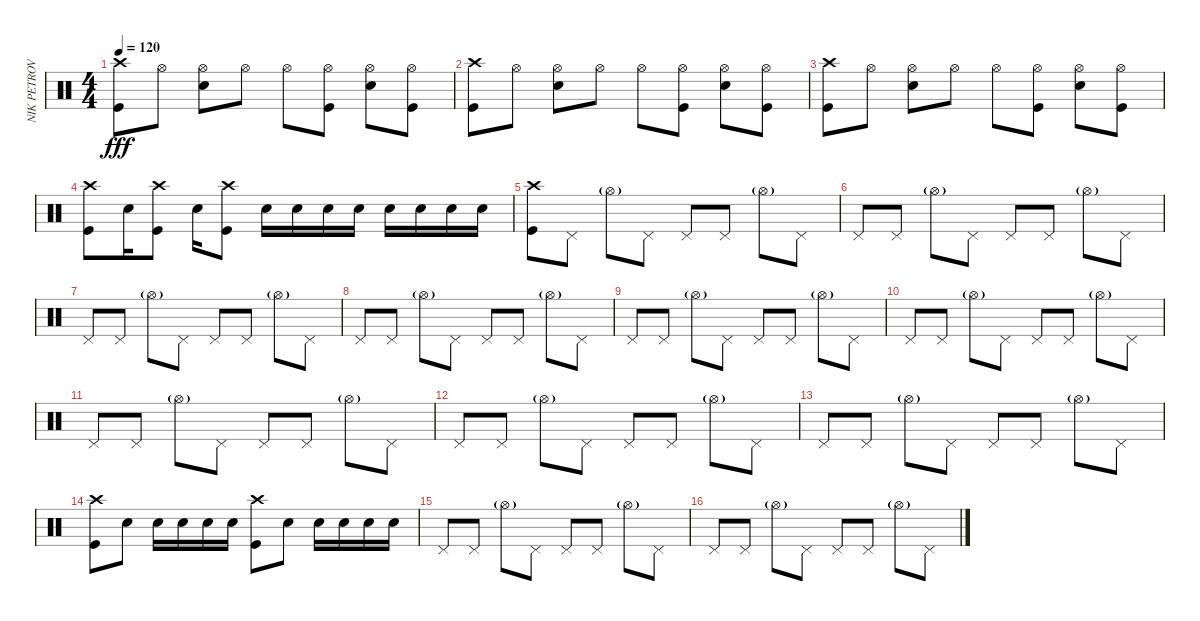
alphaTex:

\track ("NIK PETROV" "NIK PETROV") {instrument percussion}
\staff {score}
\articulation defaults
\ts (4 4)
\tempo 120
\clef neutral
\ks c
("Crash high (hit)" "Kick (hit)").8{dy fff} "Hi-Hat (open)".8 ("Hi-Hat (open)" "Snare (hit) 2").8 "Hi-Hat (open)".8 "Hi-Hat (open)".8 ("Hi-Hat (open)" "Kick (hit)").8 ("Hi-Hat (open)" "Snare (hit) 2").8 ("Hi-Hat (open)" "Kick (hit)").8 |
("Crash high (hit)" "Kick (hit)").8 "Hi-Hat (open)".8 ("Hi-Hat (open)" "Snare (hit) 2").8 "Hi-Hat (open)".8 "Hi-Hat (open)".8 ("Hi-Hat (open)" "Kick (hit)").8 ("Hi-Hat (open)" "Snare (hit) 2").8 ("Hi-Hat (open)" "Kick (hit)").8 |
("Crash high (hit)" "Kick (hit)").8 "Hi-Hat (open)".8 ("Hi-Hat (open)" "Snare (hit) 2").8 "Hi-Hat (open)".8 "Hi-Hat (open)".8 ("Hi-Hat (open)" "Kick (hit)").8 ("Hi-Hat (open)" "Snare (hit) 2").8 ("Hi-Hat (open)" "Kick (hit)").8 |
("Crash high (hit)" "Kick (hit)").8 "Snare (hit) 2".16 ("Crash high (hit)" "Kick (hit)").8 "Snare (hit) 2".16 ("Crash high (hit)" "Kick (hit)").8 "Snare (hit) 2".16 "Snare (hit) 2".16 "Snare (hit) 2".16 "Snare (hit) 2".16 "Snare (hit) 2".16 "Snare (hit) 2".16 "Snare (hit) 2".16 "Snare (hit) 2".16 |
("Crash high (hit)" "Kick (hit)").8 "Pedal Hi-Hat (hit)".8 "Hi-Hat (open)"{g}.8 "Pedal Hi-Hat (hit)".8 "Pedal Hi-Hat (hit)".8 "Pedal Hi-Hat (hit)".8 "Hi-Hat (open)"{g}.8 "Pedal Hi-Hat (hit)".8 |
"Pedal Hi-Hat (hit)".8 "Pedal Hi-Hat (hit)".8 "Hi-Hat (open)"{g}.8 "Pedal Hi-Hat (hit)".8 "Pedal Hi-Hat (hit)".8 "Pedal Hi-Hat (hit)".8 "Hi-Hat (open)"{g}.8 "Pedal Hi-Hat (hit)".8 |
"Pedal Hi-Hat (hit)".8 "Pedal Hi-Hat (hit)".8 "Hi-Hat (open)"{g}.8 "Pedal Hi-Hat (hit)".8 "Pedal Hi-Hat (hit)".8 "Pedal Hi-Hat (hit)".8 "Hi-Hat (open)"{g}.8 "Pedal Hi-Hat (hit)".8 |
"Pedal Hi-Hat (hit)".8 "Pedal Hi-Hat (hit)".8 "Hi-Hat (open)"{g}.8 "Pedal Hi-Hat (hit)".8 "Pedal Hi-Hat (hit)".8 "Pedal Hi-Hat (hit)".8 "Hi-Hat (open)"{g}.8 "Pedal Hi-Hat (hit)".8 |
"Pedal Hi-Hat (hit)".8 "Pedal Hi-Hat (hit)".8 "Hi-Hat (open)"{g}.8 "Pedal Hi-Hat (hit)".8 "Pedal Hi-Hat (hit)".8 "Pedal Hi-Hat (hit)".8 "Hi-Hat (open)"{g}.8 "Pedal Hi-Hat (hit)".8 |
"Pedal Hi-Hat (hit)".8 "Pedal Hi-Hat (hit)".8 "Hi-Hat (open)"{g}.8 "Pedal Hi-Hat (hit)".8 "Pedal Hi-Hat (hit)".8 "Pedal Hi-Hat (hit)".8 "Hi-Hat (open)"{g}.8 "Pedal Hi-Hat (hit)".8 |
"Pedal Hi-Hat (hit)".8 "Pedal Hi-Hat (hit)".8 "Hi-Hat (open)"{g}.8 "Pedal Hi-Hat (hit)".8 "Pedal Hi-Hat (hit)".8 "Pedal Hi-Hat (hit)".8 "Hi-Hat (open)"{g}.8 "Pedal Hi-Hat (hit)".8 |
"Pedal Hi-Hat (hit)".8 "Pedal Hi-Hat (hit)".8 "Hi-Hat (open)"{g}.8 "Pedal Hi-Hat (hit)".8 "Pedal Hi-Hat (hit)".8 "Pedal Hi-Hat (hit)".8 "Hi-Hat (open)"{g}.8 "Pedal Hi-Hat (hit)".8 |
"Pedal Hi-Hat (hit)".8 "Pedal Hi-Hat (hit)".8 "Hi-Hat (open)"{g}.8 "Pedal Hi-Hat (hit)".8 "Pedal Hi-Hat (hit)".8 "Pedal Hi-Hat (hit)".8 "Hi-Hat (open)"{g}.8 "Pedal Hi-Hat (hit)".8 |
("Crash high (hit)" "Kick (hit)").8 "Snare (hit) 2".8 "Snare (hit) 2".16 "Snare (hit) 2".16 "Snare (hit) 2".16 "Snare (hit) 2".16 ("Crash high (hit)" "Kick (hit)").8 "Snare (hit) 2".8 "Snare (hit) 2".16 "Snare (hit) 2".16 "Snare (hit) 2".16 "Snare (hit) 2".16 |
"Pedal Hi-Hat (hit)".8 "Pedal Hi-Hat (hit)".8 "Hi-Hat (open)"{g}.8 "Pedal Hi-Hat (hit)".8 "Pedal Hi-Hat (hit)".8 "Pedal Hi-Hat (hit)".8 "Hi-Hat (open)"{g}.8 "Pedal Hi-Hat (hit)".8 |
"Pedal Hi-Hat (hit)".8 "Pedal Hi-Hat (hit)".8 "Hi-Hat (open)"{g}.8 "Pedal Hi-Hat (hit)".8 "Pedal Hi-Hat (hit)".8 "Pedal Hi-Hat (hit)".8 "Hi-Hat (open)"{g}.8 "Pedal Hi-Hat (hit)".8
